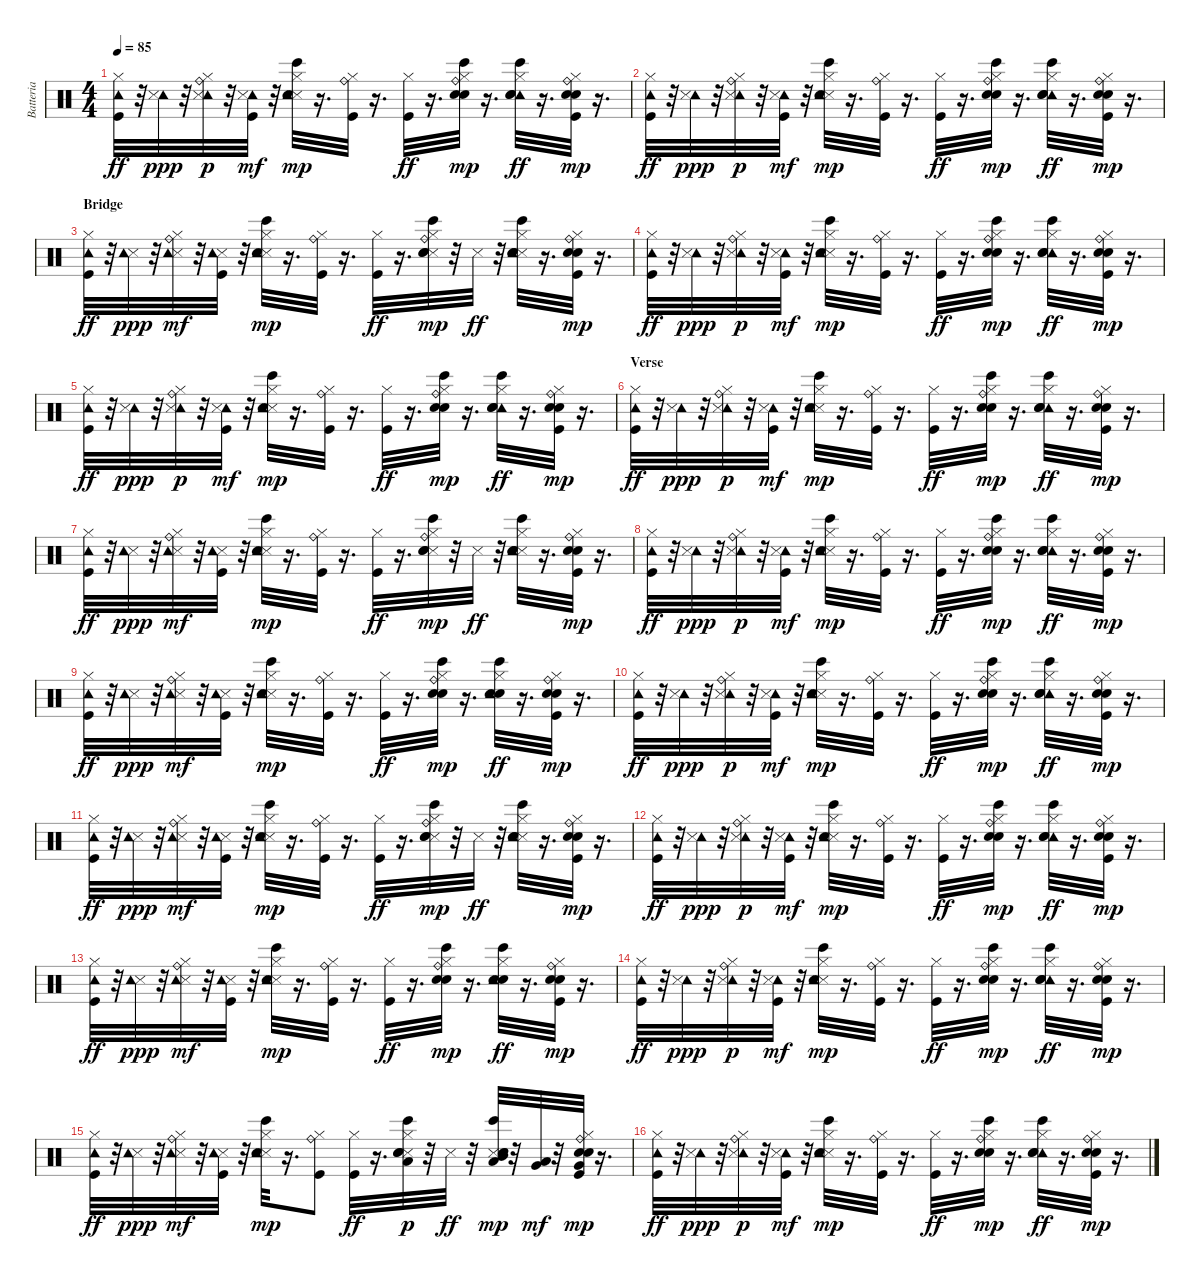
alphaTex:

\track ("Batteria" "Batteria") {instrument percussion}
\staff {score}
\articulation defaults
\ts (4 4)
\tempo 85
\clef neutral
\ks c
("Kick (hit)" "Hi-Hat (closed)" "Tambourine (hit)").32{dy ff} r.32 ("Tambourine (hit)" "Metronome (hit)").32{dy ppp} r.32 ("Tambourine (hit)" "Metronome (hit)" "Hi-Hat (closed)" "Ride (bell)").32{dy p} r.32 ("Tambourine (hit)" "Metronome (hit)" "Kick (hit)").32{dy mf} r.32 ("Bongo High (hit)" "Metronome (hit)" "Snare (hit) 2" "Hi-Hat (closed)" "Tambourine (hit)").32{dy mp} r.16{d} ("Kick (hit)" "Hi-Hat (closed)" "Ride (bell)").32 r.16{d} ("Kick (hit)" "Hi-Hat (closed)").32{dy ff} r.16{d} ("Bongo High (hit)" "Snare (hit) 2" "Hand Clap (hit)" "Hi-Hat (closed)" "Ride (bell)").32{dy mp} r.16{d} ("Tambourine (hit)" "Bongo High (hit)" "Snare (hit) 2" "Hand Clap (hit)" "Hi-Hat (closed)").32{dy ff} r.16{d} ("Kick (hit)" "Snare (hit) 2" "Hand Clap (hit)" "Hi-Hat (closed)" "Ride (bell)").32{dy mp} r.16{d} |
("Kick (hit)" "Hi-Hat (closed)" "Tambourine (hit)").32{dy ff} r.32 ("Tambourine (hit)" "Metronome (hit)").32{dy ppp} r.32 ("Tambourine (hit)" "Metronome (hit)" "Hi-Hat (closed)" "Ride (bell)").32{dy p} r.32 ("Tambourine (hit)" "Metronome (hit)" "Kick (hit)").32{dy mf} r.32 ("Bongo High (hit)" "Metronome (hit)" "Snare (hit) 2" "Hi-Hat (closed)" "Tambourine (hit)").32{dy mp} r.16{d} ("Kick (hit)" "Hi-Hat (closed)" "Ride (bell)").32 r.16{d} ("Kick (hit)" "Hi-Hat (closed)").32{dy ff} r.16{d} ("Bongo High (hit)" "Snare (hit) 2" "Hand Clap (hit)" "Hi-Hat (closed)" "Ride (bell)").32{dy mp} r.16{d} ("Tambourine (hit)" "Bongo High (hit)" "Snare (hit) 2" "Hand Clap (hit)" "Hi-Hat (closed)").32{dy ff} r.16{d} ("Kick (hit)" "Snare (hit) 2" "Hand Clap (hit)" "Hi-Hat (closed)" "Ride (bell)").32{dy mp} r.16{d} |
\section ("" "Bridge")
("Kick (hit)" "Hi-Hat (closed)" "Tambourine (hit)").32{dy ff} r.32 ("Metronome (hit)" "Tambourine (hit)").32{dy ppp} r.32 ("Metronome (hit)" "Hi-Hat (closed)" "Ride (bell)" "Tambourine (hit)").32{dy mf} r.32 ("Metronome (hit)" "Kick (hit)" "Tambourine (hit)").32 r.32 ("Bongo High (hit)" "Metronome (hit)" "Snare (hit) 2" "Hi-Hat (closed)" "Tambourine (hit)").32{dy mp} r.16{d} ("Kick (hit)" "Hi-Hat (closed)" "Ride (bell)").32 r.16{d} ("Kick (hit)" "Hi-Hat (closed)").32{dy ff} r.16{d} ("Bongo High (hit)" "Metronome (hit)" "Snare (hit) 2" "Hand Clap (hit)" "Hi-Hat (closed)" "Ride (bell)").32{dy mp} r.32 "Metronome (hit)".32{dy ff} r.32 ("Bongo High (hit)" "Metronome (hit)" "Snare (hit) 2" "Hand Clap (hit)" "Hi-Hat (closed)" "Tambourine (hit)").32 r.16{d} ("Kick (hit)" "Snare (hit) 2" "Hand Clap (hit)" "Hi-Hat (closed)" "Ride (bell)").32{dy mp} r.16{d} |
("Kick (hit)" "Hi-Hat (closed)" "Tambourine (hit)").32{dy ff} r.32 ("Tambourine (hit)" "Metronome (hit)").32{dy ppp} r.32 ("Tambourine (hit)" "Metronome (hit)" "Hi-Hat (closed)" "Ride (bell)").32{dy p} r.32 ("Tambourine (hit)" "Metronome (hit)" "Kick (hit)").32{dy mf} r.32 ("Bongo High (hit)" "Metronome (hit)" "Snare (hit) 2" "Hi-Hat (closed)" "Tambourine (hit)").32{dy mp} r.16{d} ("Kick (hit)" "Hi-Hat (closed)" "Ride (bell)").32 r.16{d} ("Kick (hit)" "Hi-Hat (closed)").32{dy ff} r.16{d} ("Bongo High (hit)" "Snare (hit) 2" "Hand Clap (hit)" "Hi-Hat (closed)" "Ride (bell)").32{dy mp} r.16{d} ("Tambourine (hit)" "Bongo High (hit)" "Snare (hit) 2" "Hand Clap (hit)" "Hi-Hat (closed)").32{dy ff} r.16{d} ("Kick (hit)" "Snare (hit) 2" "Hand Clap (hit)" "Hi-Hat (closed)" "Ride (bell)").32{dy mp} r.16{d} |
("Kick (hit)" "Hi-Hat (closed)" "Tambourine (hit)").32{dy ff} r.32 ("Tambourine (hit)" "Metronome (hit)").32{dy ppp} r.32 ("Tambourine (hit)" "Metronome (hit)" "Hi-Hat (closed)" "Ride (bell)").32{dy p} r.32 ("Tambourine (hit)" "Metronome (hit)" "Kick (hit)").32{dy mf} r.32 ("Bongo High (hit)" "Metronome (hit)" "Snare (hit) 2" "Hi-Hat (closed)" "Tambourine (hit)").32{dy mp} r.16{d} ("Kick (hit)" "Hi-Hat (closed)" "Ride (bell)").32 r.16{d} ("Kick (hit)" "Hi-Hat (closed)").32{dy ff} r.16{d} ("Bongo High (hit)" "Snare (hit) 2" "Hand Clap (hit)" "Hi-Hat (closed)" "Ride (bell)").32{dy mp} r.16{d} ("Tambourine (hit)" "Bongo High (hit)" "Snare (hit) 2" "Hand Clap (hit)" "Hi-Hat (closed)").32{dy ff} r.16{d} ("Kick (hit)" "Snare (hit) 2" "Hand Clap (hit)" "Hi-Hat (closed)" "Ride (bell)").32{dy mp} r.16{d} |
\section ("" "Verse")
("Kick (hit)" "Hi-Hat (closed)" "Tambourine (hit)").32{dy ff} r.32 ("Tambourine (hit)" "Metronome (hit)").32{dy ppp} r.32 ("Tambourine (hit)" "Metronome (hit)" "Hi-Hat (closed)" "Ride (bell)").32{dy p} r.32 ("Tambourine (hit)" "Metronome (hit)" "Kick (hit)").32{dy mf} r.32 ("Bongo High (hit)" "Metronome (hit)" "Snare (hit) 2" "Hi-Hat (closed)" "Tambourine (hit)").32{dy mp} r.16{d} ("Kick (hit)" "Hi-Hat (closed)" "Ride (bell)").32 r.16{d} ("Kick (hit)" "Hi-Hat (closed)").32{dy ff} r.16{d} ("Bongo High (hit)" "Snare (hit) 2" "Hand Clap (hit)" "Hi-Hat (closed)" "Ride (bell)").32{dy mp} r.16{d} ("Tambourine (hit)" "Bongo High (hit)" "Snare (hit) 2" "Hand Clap (hit)" "Hi-Hat (closed)").32{dy ff} r.16{d} ("Kick (hit)" "Snare (hit) 2" "Hand Clap (hit)" "Hi-Hat (closed)" "Ride (bell)").32{dy mp} r.16{d} |
("Kick (hit)" "Hi-Hat (closed)" "Tambourine (hit)").32{dy ff} r.32 ("Metronome (hit)" "Tambourine (hit)").32{dy ppp} r.32 ("Metronome (hit)" "Hi-Hat (closed)" "Ride (bell)" "Tambourine (hit)").32{dy mf} r.32 ("Metronome (hit)" "Kick (hit)" "Tambourine (hit)").32 r.32 ("Bongo High (hit)" "Metronome (hit)" "Snare (hit) 2" "Hi-Hat (closed)" "Tambourine (hit)").32{dy mp} r.16{d} ("Kick (hit)" "Hi-Hat (closed)" "Ride (bell)").32 r.16{d} ("Kick (hit)" "Hi-Hat (closed)").32{dy ff} r.16{d} ("Bongo High (hit)" "Metronome (hit)" "Snare (hit) 2" "Hand Clap (hit)" "Hi-Hat (closed)" "Ride (bell)").32{dy mp} r.32 "Metronome (hit)".32{dy ff} r.32 ("Bongo High (hit)" "Metronome (hit)" "Snare (hit) 2" "Hand Clap (hit)" "Hi-Hat (closed)" "Tambourine (hit)").32 r.16{d} ("Kick (hit)" "Snare (hit) 2" "Hand Clap (hit)" "Hi-Hat (closed)" "Ride (bell)").32{dy mp} r.16{d} |
("Kick (hit)" "Hi-Hat (closed)" "Tambourine (hit)").32{dy ff} r.32 ("Tambourine (hit)" "Metronome (hit)").32{dy ppp} r.32 ("Tambourine (hit)" "Metronome (hit)" "Hi-Hat (closed)" "Ride (bell)").32{dy p} r.32 ("Tambourine (hit)" "Metronome (hit)" "Kick (hit)").32{dy mf} r.32 ("Bongo High (hit)" "Metronome (hit)" "Snare (hit) 2" "Hi-Hat (closed)" "Tambourine (hit)").32{dy mp} r.16{d} ("Kick (hit)" "Hi-Hat (closed)" "Ride (bell)").32 r.16{d} ("Kick (hit)" "Hi-Hat (closed)").32{dy ff} r.16{d} ("Bongo High (hit)" "Snare (hit) 2" "Hand Clap (hit)" "Hi-Hat (closed)" "Ride (bell)").32{dy mp} r.16{d} ("Tambourine (hit)" "Bongo High (hit)" "Snare (hit) 2" "Hand Clap (hit)" "Hi-Hat (closed)").32{dy ff} r.16{d} ("Kick (hit)" "Snare (hit) 2" "Hand Clap (hit)" "Hi-Hat (closed)" "Ride (bell)").32{dy mp} r.16{d} |
("Kick (hit)" "Hi-Hat (closed)" "Tambourine (hit)").32{dy ff} r.32 ("Metronome (hit)" "Tambourine (hit)").32{dy ppp} r.32 ("Metronome (hit)" "Hi-Hat (closed)" "Ride (bell)" "Tambourine (hit)").32{dy mf} r.32 ("Metronome (hit)" "Kick (hit)" "Tambourine (hit)").32 r.32 ("Bongo High (hit)" "Metronome (hit)" "Snare (hit) 2" "Hi-Hat (closed)" "Tambourine (hit)").32{dy mp} r.16{d} ("Kick (hit)" "Hi-Hat (closed)" "Ride (bell)").32 r.16{d} ("Kick (hit)" "Hi-Hat (closed)").32{dy ff} r.16{d} ("Bongo High (hit)" "Snare (hit) 2" "Hand Clap (hit)" "Hi-Hat (closed)" "Ride (bell)").32{dy mp} r.16{d} ("Bongo High (hit)" "Snare (hit) 2" "Hand Clap (hit)" "Hi-Hat (closed)" "Tambourine (hit)").32{dy ff} r.16{d} ("Kick (hit)" "Snare (hit) 2" "Hand Clap (hit)" "Hi-Hat (closed)" "Ride (bell)").32{dy mp} r.16{d} |
("Kick (hit)" "Hi-Hat (closed)" "Tambourine (hit)").32{dy ff} r.32 ("Tambourine (hit)" "Metronome (hit)").32{dy ppp} r.32 ("Tambourine (hit)" "Metronome (hit)" "Hi-Hat (closed)" "Ride (bell)").32{dy p} r.32 ("Tambourine (hit)" "Metronome (hit)" "Kick (hit)").32{dy mf} r.32 ("Bongo High (hit)" "Metronome (hit)" "Snare (hit) 2" "Hi-Hat (closed)" "Tambourine (hit)").32{dy mp} r.16{d} ("Kick (hit)" "Hi-Hat (closed)" "Ride (bell)").32 r.16{d} ("Kick (hit)" "Hi-Hat (closed)").32{dy ff} r.16{d} ("Bongo High (hit)" "Snare (hit) 2" "Hand Clap (hit)" "Hi-Hat (closed)" "Ride (bell)").32{dy mp} r.16{d} ("Tambourine (hit)" "Bongo High (hit)" "Snare (hit) 2" "Hand Clap (hit)" "Hi-Hat (closed)").32{dy ff} r.16{d} ("Kick (hit)" "Snare (hit) 2" "Hand Clap (hit)" "Hi-Hat (closed)" "Ride (bell)").32{dy mp} r.16{d} |
("Kick (hit)" "Hi-Hat (closed)" "Tambourine (hit)").32{dy ff} r.32 ("Metronome (hit)" "Tambourine (hit)").32{dy ppp} r.32 ("Metronome (hit)" "Hi-Hat (closed)" "Ride (bell)" "Tambourine (hit)").32{dy mf} r.32 ("Metronome (hit)" "Kick (hit)" "Tambourine (hit)").32 r.32 ("Bongo High (hit)" "Metronome (hit)" "Snare (hit) 2" "Hi-Hat (closed)" "Tambourine (hit)").32{dy mp} r.16{d} ("Kick (hit)" "Hi-Hat (closed)" "Ride (bell)").32 r.16{d} ("Kick (hit)" "Hi-Hat (closed)").32{dy ff} r.16{d} ("Bongo High (hit)" "Metronome (hit)" "Snare (hit) 2" "Hand Clap (hit)" "Hi-Hat (closed)" "Ride (bell)").32{dy mp} r.32 "Metronome (hit)".32{dy ff} r.32 ("Bongo High (hit)" "Metronome (hit)" "Snare (hit) 2" "Hand Clap (hit)" "Hi-Hat (closed)" "Tambourine (hit)").32 r.16{d} ("Kick (hit)" "Snare (hit) 2" "Hand Clap (hit)" "Hi-Hat (closed)" "Ride (bell)").32{dy mp} r.16{d} |
("Kick (hit)" "Hi-Hat (closed)" "Tambourine (hit)").32{dy ff} r.32 ("Tambourine (hit)" "Metronome (hit)").32{dy ppp} r.32 ("Tambourine (hit)" "Metronome (hit)" "Hi-Hat (closed)" "Ride (bell)").32{dy p} r.32 ("Tambourine (hit)" "Metronome (hit)" "Kick (hit)").32{dy mf} r.32 ("Bongo High (hit)" "Metronome (hit)" "Snare (hit) 2" "Hi-Hat (closed)" "Tambourine (hit)").32{dy mp} r.16{d} ("Kick (hit)" "Hi-Hat (closed)" "Ride (bell)").32 r.16{d} ("Kick (hit)" "Hi-Hat (closed)").32{dy ff} r.16{d} ("Bongo High (hit)" "Snare (hit) 2" "Hand Clap (hit)" "Hi-Hat (closed)" "Ride (bell)").32{dy mp} r.16{d} ("Tambourine (hit)" "Bongo High (hit)" "Snare (hit) 2" "Hand Clap (hit)" "Hi-Hat (closed)").32{dy ff} r.16{d} ("Kick (hit)" "Snare (hit) 2" "Hand Clap (hit)" "Hi-Hat (closed)" "Ride (bell)").32{dy mp} r.16{d} |
("Kick (hit)" "Hi-Hat (closed)" "Tambourine (hit)").32{dy ff} r.32 ("Metronome (hit)" "Tambourine (hit)").32{dy ppp} r.32 ("Metronome (hit)" "Hi-Hat (closed)" "Ride (bell)" "Tambourine (hit)").32{dy mf} r.32 ("Metronome (hit)" "Kick (hit)" "Tambourine (hit)").32 r.32 ("Bongo High (hit)" "Metronome (hit)" "Snare (hit) 2" "Hi-Hat (closed)" "Tambourine (hit)").32{dy mp} r.16{d} ("Kick (hit)" "Hi-Hat (closed)" "Ride (bell)").32 r.16{d} ("Kick (hit)" "Hi-Hat (closed)").32{dy ff} r.16{d} ("Bongo High (hit)" "Snare (hit) 2" "Hand Clap (hit)" "Hi-Hat (closed)" "Ride (bell)").32{dy mp} r.16{d} ("Bongo High (hit)" "Snare (hit) 2" "Hand Clap (hit)" "Hi-Hat (closed)" "Tambourine (hit)").32{dy ff} r.16{d} ("Kick (hit)" "Snare (hit) 2" "Hand Clap (hit)" "Hi-Hat (closed)" "Ride (bell)").32{dy mp} r.16{d} |
("Kick (hit)" "Hi-Hat (closed)" "Tambourine (hit)").32{dy ff} r.32 ("Tambourine (hit)" "Metronome (hit)").32{dy ppp} r.32 ("Tambourine (hit)" "Metronome (hit)" "Hi-Hat (closed)" "Ride (bell)").32{dy p} r.32 ("Tambourine (hit)" "Metronome (hit)" "Kick (hit)").32{dy mf} r.32 ("Bongo High (hit)" "Metronome (hit)" "Snare (hit) 2" "Hi-Hat (closed)" "Tambourine (hit)").32{dy mp} r.16{d} ("Kick (hit)" "Hi-Hat (closed)" "Ride (bell)").32 r.16{d} ("Kick (hit)" "Hi-Hat (closed)").32{dy ff} r.16{d} ("Bongo High (hit)" "Snare (hit) 2" "Hand Clap (hit)" "Hi-Hat (closed)" "Ride (bell)").32{dy mp} r.16{d} ("Tambourine (hit)" "Bongo High (hit)" "Snare (hit) 2" "Hand Clap (hit)" "Hi-Hat (closed)").32{dy ff} r.16{d} ("Kick (hit)" "Snare (hit) 2" "Hand Clap (hit)" "Hi-Hat (closed)" "Ride (bell)").32{dy mp} r.16{d} |
("Kick (hit)" "Hi-Hat (closed)" "Tambourine (hit)").32{dy ff} r.32 ("Metronome (hit)" "Tambourine (hit)").32{dy ppp} r.32 ("Metronome (hit)" "Hi-Hat (closed)" "Ride (bell)" "Tambourine (hit)").32{dy mf} r.32 ("Metronome (hit)" "Kick (hit)" "Tambourine (hit)").32 r.32 ("Bongo High (hit)" "Metronome (hit)" "Snare (hit) 2" "Hi-Hat (closed)" "Tambourine (hit)").32{dy mp} r.16{d} ("Kick (hit)" "Hi-Hat (closed)" "Ride (bell)").8 ("Kick (hit)" "Hi-Hat (closed)").32{dy ff} r.16{d} ("Low Tom (hit)" "Bongo High (hit)" "Metronome (hit)" "Snare (hit) 2" "Hand Clap (hit)" "Hi-Hat (closed)").32{dy p} r.32 "Metronome (hit)".32{dy ff} r.32 ("Low Tom (hit)" "Mid Tom (hit)" "Bongo High (hit)" "Metronome (hit)" "Snare (hit) 2" "Hand Clap (hit)").32{dy mp} r.32 ("Low Tom (hit)" "Very Low Tom (hit)").32{dy mf} r.32 ("Very Low Tom (hit)" "Kick (hit)" "Snare (hit) 2" "Hand Clap (hit)" "Hi-Hat (closed)" "Ride (bell)").32{dy mp} r.16{d} |
("Kick (hit)" "Hi-Hat (closed)" "Tambourine (hit)").32{dy ff} r.32 ("Tambourine (hit)" "Metronome (hit)").32{dy ppp} r.32 ("Tambourine (hit)" "Metronome (hit)" "Hi-Hat (closed)" "Ride (bell)").32{dy p} r.32 ("Tambourine (hit)" "Metronome (hit)" "Kick (hit)").32{dy mf} r.32 ("Bongo High (hit)" "Metronome (hit)" "Snare (hit) 2" "Hi-Hat (closed)" "Tambourine (hit)").32{dy mp} r.16{d} ("Kick (hit)" "Hi-Hat (closed)" "Ride (bell)").32 r.16{d} ("Kick (hit)" "Hi-Hat (closed)").32{dy ff} r.16{d} ("Bongo High (hit)" "Snare (hit) 2" "Hand Clap (hit)" "Hi-Hat (closed)" "Ride (bell)").32{dy mp} r.16{d} ("Tambourine (hit)" "Bongo High (hit)" "Snare (hit) 2" "Hand Clap (hit)" "Hi-Hat (closed)").32{dy ff} r.16{d} ("Kick (hit)" "Snare (hit) 2" "Hand Clap (hit)" "Hi-Hat (closed)" "Ride (bell)").32{dy mp} r.16{d}
